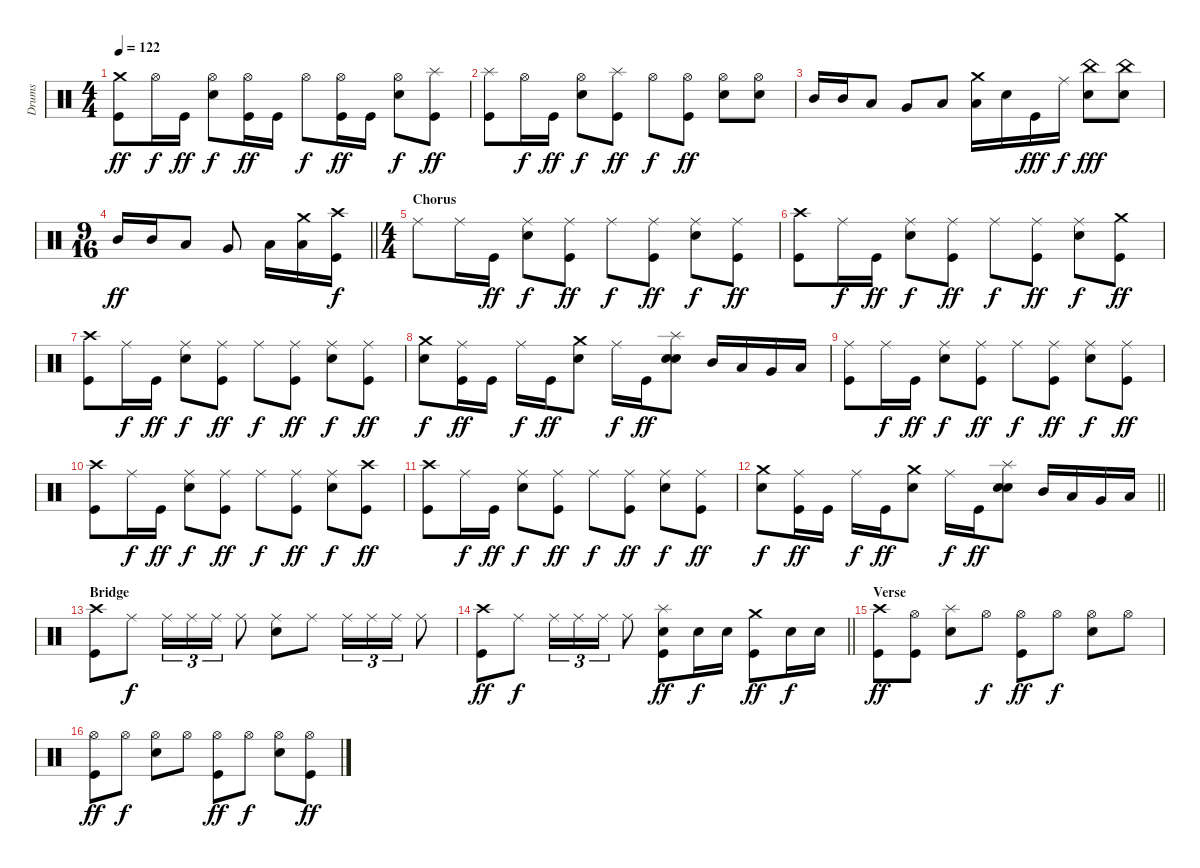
\track ("Drums" "Drums") {instrument percussion}
\staff {score}
\articulation defaults
\ts (4 4)
\tempo 122
\clef neutral
\ks c
("Crash medium (hit)" "Kick (hit)").8{dy ff} "Hi-Hat (open)".16{dy f} "Kick (hit)".16{dy ff} ("Hi-Hat (open)" "Snare (hit) 2").8{dy f} ("Hi-Hat (open)" "Kick (hit)").16{dy ff} "Kick (hit)".16 "Hi-Hat (open)".8{dy f} ("Hi-Hat (open)" "Kick (hit)").16{dy ff} "Kick (hit)".16 ("Hi-Hat (open)" "Snare (hit) 2").8{dy f} ("Splash (hit)" "Kick (hit)").8{dy ff} |
("Splash (hit)" "Kick (hit)").8 "Hi-Hat (open)".16{dy f} "Kick (hit)".16{dy ff} ("Hi-Hat (open)" "Snare (hit) 2").8{dy f} ("Splash (hit)" "Kick (hit)").8{dy ff} "Hi-Hat (open)".8{dy f} ("Hi-Hat (open)" "Kick (hit)").8{dy ff} ("Hi-Hat (open)" "Snare (hit) 2").8 ("Hi-Hat (open)" "Snare (hit) 2").8 |
"Mid Tom (hit)".16 "Mid Tom (hit)".16 "Low Tom (hit)".8 "Very Low Tom (hit)".8 "Low Floor Tom (hit)".8 ("Crash medium (hit)" "Low Floor Tom (hit)").16 "Snare (hit) 2".16 "Kick (hit)".16{dy fff} "Ride (middle)".16{dy f} ("China (hit)" "Snare (hit) 2").8{dy fff} ("China (hit)" "Snare (hit) 2").8 |
\ts (9 16)
\barLineRight lightlight "Mid Tom (hit)".16{dy ff} "Mid Tom (hit)".16 "Low Tom (hit)".8 "Very Low Tom (hit)".8 "Low Floor Tom (hit)".16
("Crash medium (hit)" "Low Floor Tom (hit)").16 ("Crash high (hit)" "Kick (hit)").16{dy f} |
\ts (4 4)
\section ("" "Chorus")
"Ride (middle)".8 "Ride (middle)".16 "Kick (hit)".16{dy ff} ("Ride (middle)" "Snare (hit) 2").8{dy f} ("Ride (middle)" "Kick (hit)").8{dy ff} "Ride (middle)".8{dy f} ("Ride (middle)" "Kick (hit)").8{dy ff} ("Ride (middle)" "Snare (hit) 2").8{dy f} ("Ride (middle)" "Kick (hit)").8{dy ff} |
("Crash high (hit)" "Kick (hit)").8 "Ride (middle)".16{dy f} "Kick (hit)".16{dy ff} ("Ride (middle)" "Snare (hit) 2").8{dy f} ("Ride (middle)" "Kick (hit)").8{dy ff} "Ride (middle)".8{dy f} ("Ride (middle)" "Kick (hit)").8{dy ff} ("Ride (middle)" "Snare (hit) 2").8{dy f} ("Crash medium (hit)" "Kick (hit)").8{dy ff} |
("Crash high (hit)" "Kick (hit)").8 "Ride (middle)".16{dy f} "Kick (hit)".16{dy ff} ("Ride (middle)" "Snare (hit) 2").8{dy f} ("Ride (middle)" "Kick (hit)").8{dy ff} "Ride (middle)".8{dy f} ("Ride (middle)" "Kick (hit)").8{dy ff} ("Ride (middle)" "Snare (hit) 2").8{dy f} ("Ride (middle)" "Kick (hit)").8{dy ff} |
("Crash medium (hit)" "Snare (hit) 2").8{dy f} ("Ride (middle)" "Kick (hit)").16{dy ff} "Kick (hit)".16 "Ride (middle)".16{dy f} "Kick (hit)".16{dy ff} ("Crash medium (hit)" "Snare (hit) 2").8 "Ride (middle)".16{dy f} "Kick (hit)".16{dy ff} ("Splash (hit)" "Snare (hit) 2" "Snare (hit) 2").8 "Mid Tom (hit)".16 "Low Tom (hit)".16 "Very Low Tom (hit)".16 "Low Tom (hit)".16 |
("Ride (middle)" "Kick (hit)").8 "Ride (middle)".16{dy f} "Kick (hit)".16{dy ff} ("Ride (middle)" "Snare (hit) 2").8{dy f} ("Ride (middle)" "Kick (hit)").8{dy ff} "Ride (middle)".8{dy f} ("Ride (middle)" "Kick (hit)").8{dy ff} ("Ride (middle)" "Snare (hit) 2").8{dy f} ("Ride (middle)" "Kick (hit)").8{dy ff} |
("Crash high (hit)" "Kick (hit)").8 "Ride (middle)".16{dy f} "Kick (hit)".16{dy ff} ("Ride (middle)" "Snare (hit) 2").8{dy f} ("Ride (middle)" "Kick (hit)").8{dy ff} "Ride (middle)".8{dy f} ("Ride (middle)" "Kick (hit)").8{dy ff} ("Ride (middle)" "Snare (hit) 2").8{dy f} ("Crash high (hit)" "Kick (hit)").8{dy ff} |
("Crash high (hit)" "Kick (hit)").8 "Ride (middle)".16{dy f} "Kick (hit)".16{dy ff} ("Ride (middle)" "Snare (hit) 2").8{dy f} ("Ride (middle)" "Kick (hit)").8{dy ff} "Ride (middle)".8{dy f} ("Ride (middle)" "Kick (hit)").8{dy ff} ("Ride (middle)" "Snare (hit) 2").8{dy f} ("Ride (middle)" "Kick (hit)").8{dy ff} |
\barLineRight lightlight
("Crash medium (hit)" "Snare (hit) 2").8{dy f} ("Ride (middle)" "Kick (hit)").16{dy ff} "Kick (hit)".16 "Ride (middle)".16{dy f} "Kick (hit)".16{dy ff} ("Crash medium (hit)" "Snare (hit) 2").8 "Ride (middle)".16{dy f} "Kick (hit)".16{dy ff} ("Splash (hit)" "Snare (hit) 2" "Snare (hit) 2").8 "Mid Tom (hit)".16 "Low Tom (hit)".16 "Very Low Tom (hit)".16 "Low Tom (hit)".16 |
\section ("" "Bridge")
("Crash high (hit)" "Kick (hit)").8 "Ride (middle)".8{dy f} "Ride (middle)".16{tu (3 2)} "Ride (middle)".16{tu (3 2)} "Ride (middle)".16{tu (3 2)} "Ride (middle)".8 ("Ride (middle)" "Snare (hit) 2").8 "Ride (middle)".8 "Ride (middle)".16{tu (3 2)} "Ride (middle)".16{tu (3 2)} "Ride (middle)".16{tu (3 2)} "Ride (middle)".8 |
\barLineRight lightlight
("Crash high (hit)" "Kick (hit)").8{dy ff} "Ride (middle)".8{dy f} "Ride (middle)".16{tu (3 2)} "Ride (middle)".16{tu (3 2)} "Ride (middle)".16{tu (3 2)} "Ride (middle)".8 ("Splash (hit)" "Snare (hit) 2" "Kick (hit)").8{dy ff} "Snare (hit) 2".16{dy f} "Snare (hit) 2".16 ("Crash medium (hit)" "Kick (hit)").8{dy ff} "Snare (hit) 2".16{dy f} "Snare (hit) 2".16 |
\section ("" "Verse")
("Crash high (hit)" "Kick (hit)").8{dy ff} ("Hi-Hat (open)" "Kick (hit)").8 ("Splash (hit)" "Snare (hit) 2").8 "Hi-Hat (open)".8{dy f} ("Hi-Hat (open)" "Kick (hit)").8{dy ff} "Hi-Hat (open)".8{dy f} ("Hi-Hat (open)" "Snare (hit) 2").8 "Hi-Hat (open)".8 |
("Hi-Hat (open)" "Kick (hit)").8{dy ff} "Hi-Hat (open)".8{dy f} ("Hi-Hat (open)" "Snare (hit) 2").8 "Hi-Hat (open)".8 ("Hi-Hat (open)" "Kick (hit)").8{dy ff} "Hi-Hat (open)".8{dy f} ("Hi-Hat (open)" "Snare (hit) 2").8 ("Hi-Hat (open)" "Kick (hit)").8{dy ff}
